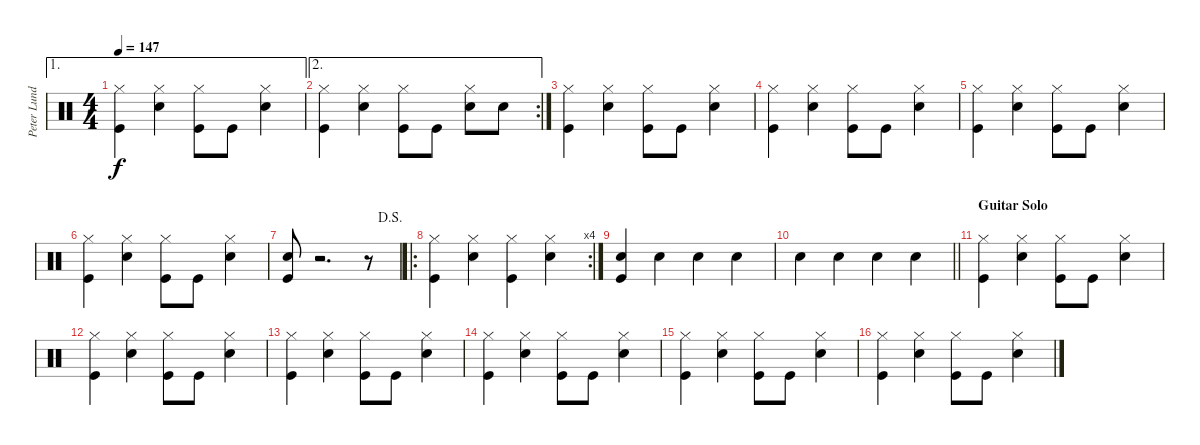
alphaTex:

\track ("Peter Lundholm Jensen" "Peter Lund") {instrument percussion}
\staff {score}
\articulation defaults
\ae 1
\ts (4 4)
\tempo 147
\clef neutral
\ks c
("Kick (hit)" "Hi-Hat (closed)").4{dy f} ("Snare (hit) 2" "Hi-Hat (closed)").4 ("Kick (hit)" "Hi-Hat (closed)").8 "Kick (hit)".8 ("Snare (hit) 2" "Hi-Hat (closed)").4 |
\ae 2
\rc 2
("Kick (hit)" "Hi-Hat (closed)").4 ("Snare (hit) 2" "Hi-Hat (closed)").4 ("Kick (hit)" "Hi-Hat (closed)").8 "Kick (hit)".8 ("Snare (hit) 2" "Hi-Hat (closed)").8 "Snare (hit) 2".8 |
("Kick (hit)" "Hi-Hat (closed)").4 ("Snare (hit) 2" "Hi-Hat (closed)").4 ("Kick (hit)" "Hi-Hat (closed)").8 "Kick (hit)".8 ("Snare (hit) 2" "Hi-Hat (closed)").4 |
("Kick (hit)" "Hi-Hat (closed)").4 ("Snare (hit) 2" "Hi-Hat (closed)").4 ("Kick (hit)" "Hi-Hat (closed)").8 "Kick (hit)".8 ("Snare (hit) 2" "Hi-Hat (closed)").4 |
("Kick (hit)" "Hi-Hat (closed)").4 ("Snare (hit) 2" "Hi-Hat (closed)").4 ("Kick (hit)" "Hi-Hat (closed)").8 "Kick (hit)".8 ("Snare (hit) 2" "Hi-Hat (closed)").4 |
("Kick (hit)" "Hi-Hat (closed)").4 ("Snare (hit) 2" "Hi-Hat (closed)").4 ("Kick (hit)" "Hi-Hat (closed)").8 "Kick (hit)".8 ("Snare (hit) 2" "Hi-Hat (closed)").4 |
\jump dalsegno
("Kick (hit)" "Snare (hit) 2").8 r.2{d} r.8 |
\ro
\rc 4
("Kick (hit)" "Hi-Hat (closed)").4 ("Snare (hit) 2" "Hi-Hat (closed)").4 ("Kick (hit)" "Hi-Hat (closed)").4 ("Snare (hit) 2" "Hi-Hat (closed)").4 |
("Kick (hit)" "Snare (hit) 2").4 "Snare (hit) 2".4 "Snare (hit) 2".4 "Snare (hit) 2".4 |
\barLineRight lightlight "Snare (hit) 2".4 "Snare (hit) 2".4 "Snare (hit) 2".4 "Snare (hit) 2".4
|
\section ("" "Guitar Solo")
("Kick (hit)" "Hi-Hat (closed)").4 ("Snare (hit) 2" "Hi-Hat (closed)").4 ("Kick (hit)" "Hi-Hat (closed)").8 "Kick (hit)".8 ("Snare (hit) 2" "Hi-Hat (closed)").4 |
("Kick (hit)" "Hi-Hat (closed)").4 ("Snare (hit) 2" "Hi-Hat (closed)").4 ("Kick (hit)" "Hi-Hat (closed)").8 "Kick (hit)".8 ("Snare (hit) 2" "Hi-Hat (closed)").4 |
("Kick (hit)" "Hi-Hat (closed)").4 ("Snare (hit) 2" "Hi-Hat (closed)").4 ("Kick (hit)" "Hi-Hat (closed)").8 "Kick (hit)".8 ("Snare (hit) 2" "Hi-Hat (closed)").4 |
("Kick (hit)" "Hi-Hat (closed)").4 ("Snare (hit) 2" "Hi-Hat (closed)").4 ("Kick (hit)" "Hi-Hat (closed)").8 "Kick (hit)".8 ("Snare (hit) 2" "Hi-Hat (closed)").4 |
("Kick (hit)" "Hi-Hat (closed)").4 ("Snare (hit) 2" "Hi-Hat (closed)").4 ("Kick (hit)" "Hi-Hat (closed)").8 "Kick (hit)".8 ("Snare (hit) 2" "Hi-Hat (closed)").4 |
("Kick (hit)" "Hi-Hat (closed)").4 ("Snare (hit) 2" "Hi-Hat (closed)").4 ("Kick (hit)" "Hi-Hat (closed)").8 "Kick (hit)".8 ("Snare (hit) 2" "Hi-Hat (closed)").4
